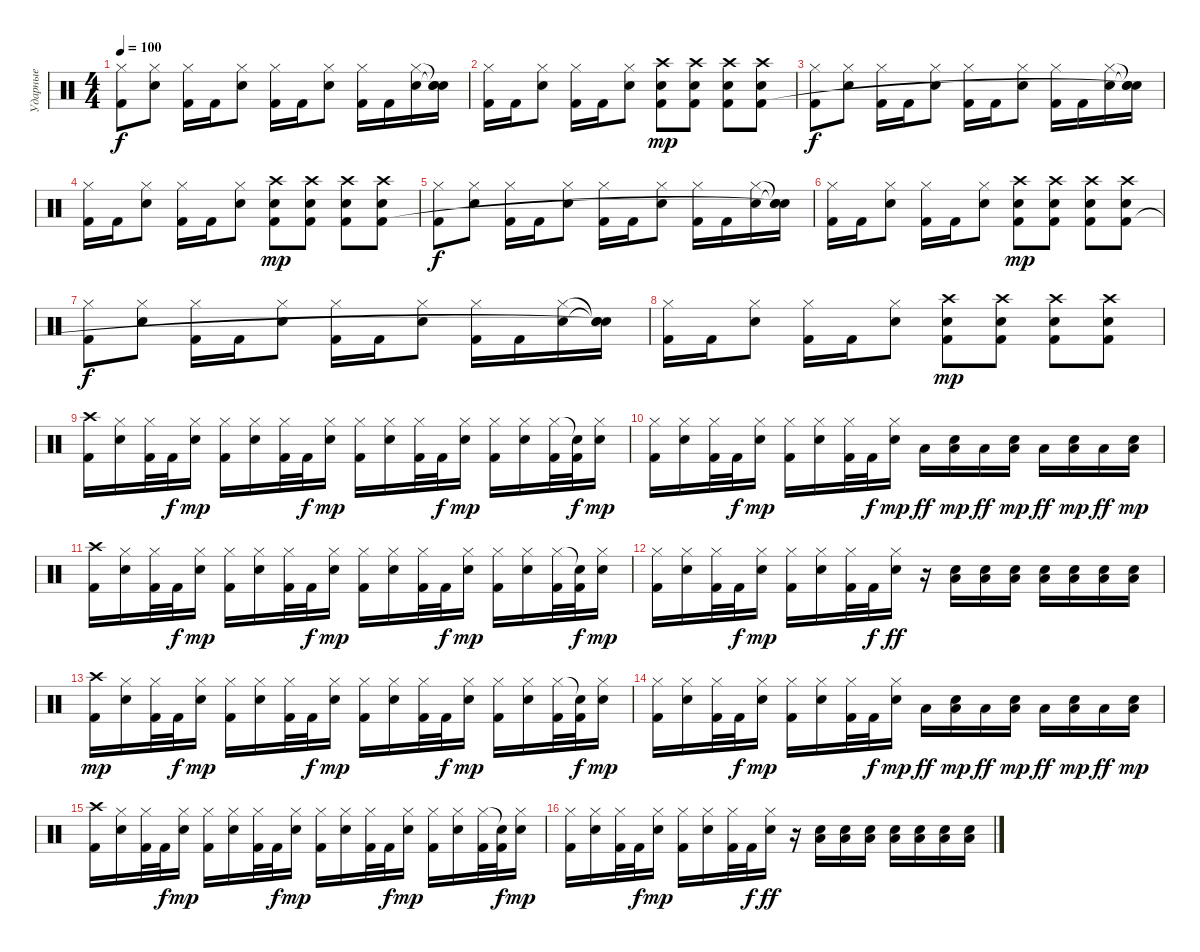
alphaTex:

\track ("Ударные" "Ударные") {instrument percussion}
\staff {score}
\articulation defaults
\ts (4 4)
\tempo 100
\clef neutral
\ks c
("Hi-Hat (closed)" "Kick (hit) 2").8{dy f} ("Hi-Hat (closed)" "Electric Snare (hit)").8 ("Hi-Hat (closed)" "Kick (hit) 2").16 "Kick (hit) 2".16 ("Hi-Hat (closed)" "Electric Snare (hit)").8 ("Hi-Hat (closed)" "Kick (hit) 2").16 "Kick (hit) 2".16 ("Hi-Hat (closed)" "Electric Snare (hit)").8 ("Hi-Hat (closed)" "Kick (hit) 2").16 "Kick (hit) 2".16 ("Hi-Hat (closed)" "Electric Snare (hit)").16 ("Snare (hit)"{t} "Snare (hit)"{t} "Snare (hit)").16 |
("Hi-Hat (closed)" "Kick (hit) 2").16 "Kick (hit) 2".16 ("Hi-Hat (closed)" "Electric Snare (hit)").8 ("Hi-Hat (closed)" "Kick (hit) 2").16 "Kick (hit) 2".16 ("Hi-Hat (closed)" "Electric Snare (hit)").8 ("Crash high (hit)" "Electric Snare (hit)" "Kick (hit) 2").8{dy mp} ("Crash high (hit)" "Electric Snare (hit)" "Kick (hit) 2").8 ("Crash high (hit)" "Electric Snare (hit)" "Kick (hit) 2").8 ("Crash high (hit)" "Electric Snare (hit)" "Kick (hit) 2").8 |
("Hi-Hat (closed)" "Kick (hit) 2").8{dy f} ("Hi-Hat (closed)" "Electric Snare (hit)").8 ("Hi-Hat (closed)" "Kick (hit) 2").16 "Kick (hit) 2".16 ("Hi-Hat (closed)" "Electric Snare (hit)").8 ("Hi-Hat (closed)" "Kick (hit) 2").16 "Kick (hit) 2".16 ("Hi-Hat (closed)" "Electric Snare (hit)").8 ("Hi-Hat (closed)" "Kick (hit) 2").16 "Kick (hit) 2".16 ("Hi-Hat (closed)" "Electric Snare (hit)").16 ("Snare (hit)"{t} "Snare (hit)"{t} "Snare (hit)"{t}).16 |
("Hi-Hat (closed)" "Kick (hit) 2").16 "Kick (hit) 2".16 ("Hi-Hat (closed)" "Electric Snare (hit)").8 ("Hi-Hat (closed)" "Kick (hit) 2").16 "Kick (hit) 2".16 ("Hi-Hat (closed)" "Electric Snare (hit)").8 ("Crash high (hit)" "Electric Snare (hit)" "Kick (hit) 2").8{dy mp} ("Crash high (hit)" "Electric Snare (hit)" "Kick (hit) 2").8 ("Crash high (hit)" "Electric Snare (hit)" "Kick (hit) 2").8 ("Crash high (hit)" "Electric Snare (hit)" "Kick (hit) 2").8 |
("Hi-Hat (closed)" "Kick (hit) 2").8{dy f} ("Hi-Hat (closed)" "Electric Snare (hit)").8 ("Hi-Hat (closed)" "Kick (hit) 2").16 "Kick (hit) 2".16 ("Hi-Hat (closed)" "Electric Snare (hit)").8 ("Hi-Hat (closed)" "Kick (hit) 2").16 "Kick (hit) 2".16 ("Hi-Hat (closed)" "Electric Snare (hit)").8 ("Hi-Hat (closed)" "Kick (hit) 2").16 "Kick (hit) 2".16 ("Hi-Hat (closed)" "Electric Snare (hit)").16 ("Snare (hit)"{t} "Snare (hit)"{t} "Snare (hit)"{t}).16 |
("Hi-Hat (closed)" "Kick (hit) 2").16 "Kick (hit) 2".16 ("Hi-Hat (closed)" "Electric Snare (hit)").8 ("Hi-Hat (closed)" "Kick (hit) 2").16 "Kick (hit) 2".16 ("Hi-Hat (closed)" "Electric Snare (hit)").8 ("Crash high (hit)" "Electric Snare (hit)" "Kick (hit) 2").8{dy mp} ("Crash high (hit)" "Electric Snare (hit)" "Kick (hit) 2").8 ("Crash high (hit)" "Electric Snare (hit)" "Kick (hit) 2").8 ("Crash high (hit)" "Electric Snare (hit)" "Kick (hit) 2").8 |
("Hi-Hat (closed)" "Kick (hit) 2").8{dy f} ("Hi-Hat (closed)" "Electric Snare (hit)").8 ("Hi-Hat (closed)" "Kick (hit) 2").16 "Kick (hit) 2".16 ("Hi-Hat (closed)" "Electric Snare (hit)").8 ("Hi-Hat (closed)" "Kick (hit) 2").16 "Kick (hit) 2".16 ("Hi-Hat (closed)" "Electric Snare (hit)").8 ("Hi-Hat (closed)" "Kick (hit) 2").16 "Kick (hit) 2".16 ("Hi-Hat (closed)" "Electric Snare (hit)").16 ("Snare (hit)"{t} "Snare (hit)"{t} "Snare (hit)"{t}).16 |
("Hi-Hat (closed)" "Kick (hit) 2").16 "Kick (hit) 2".16 ("Hi-Hat (closed)" "Electric Snare (hit)").8 ("Hi-Hat (closed)" "Kick (hit) 2").16 "Kick (hit) 2".16 ("Hi-Hat (closed)" "Electric Snare (hit)").8 ("Crash high (hit)" "Electric Snare (hit)" "Kick (hit) 2").8{dy mp} ("Crash high (hit)" "Electric Snare (hit)" "Kick (hit) 2").8 ("Crash high (hit)" "Electric Snare (hit)" "Kick (hit) 2").8 ("Crash high (hit)" "Electric Snare (hit)" "Kick (hit) 2").8 |
("Crash high (hit)" "Kick (hit) 2").16 ("Hi-Hat (closed)" "Electric Snare (hit)").16 ("Hi-Hat (closed)" "Kick (hit) 2").32 "Kick (hit) 2".32{dy f} ("Hi-Hat (closed)" "Electric Snare (hit)").16{dy mp} ("Hi-Hat (closed)" "Kick (hit) 2").16 ("Hi-Hat (closed)" "Electric Snare (hit)").16 ("Hi-Hat (closed)" "Kick (hit) 2").32 "Kick (hit) 2".32{dy f} ("Hi-Hat (closed)" "Electric Snare (hit)").16{dy mp} ("Hi-Hat (closed)" "Kick (hit) 2").16 ("Hi-Hat (closed)" "Electric Snare (hit)").16 ("Hi-Hat (closed)" "Kick (hit) 2").32 "Kick (hit) 2".32{dy f} ("Hi-Hat (closed)" "Electric Snare (hit)").16{dy mp} ("Hi-Hat (closed)" "Kick (hit) 2").16 ("Hi-Hat (closed)" "Electric Snare (hit)").16 ("Hi-Hat (closed)" "Kick (hit) 2").32 ("Snare (hit)"{t} "Kick (hit) 2").32{dy f} ("Hi-Hat (closed)" "Electric Snare (hit)").16{dy mp} |
("Hi-Hat (closed)" "Kick (hit) 2").16 ("Hi-Hat (closed)" "Electric Snare (hit)").16 ("Hi-Hat (closed)" "Kick (hit) 2").32 "Kick (hit) 2".32{dy f} ("Hi-Hat (closed)" "Electric Snare (hit)").16{dy mp} ("Hi-Hat (closed)" "Kick (hit) 2").16 ("Hi-Hat (closed)" "Electric Snare (hit)").16 ("Hi-Hat (closed)" "Kick (hit) 2").32 "Kick (hit) 2".32{dy f} ("Hi-Hat (closed)" "Electric Snare (hit)").16{dy mp} "Low Floor Tom (hit)".16{dy ff} ("Low Floor Tom (hit)" "Electric Snare (hit)").16{dy mp} "Low Floor Tom (hit)".16{dy ff} ("Low Floor Tom (hit)" "Electric Snare (hit)").16{dy mp} "Low Floor Tom (hit)".16{dy ff} ("Low Floor Tom (hit)" "Electric Snare (hit)").16{dy mp} "Low Floor Tom (hit)".16{dy ff} ("Low Floor Tom (hit)" "Electric Snare (hit)").16{dy mp} |
("Crash high (hit)" "Kick (hit) 2").16 ("Hi-Hat (closed)" "Electric Snare (hit)").16 ("Hi-Hat (closed)" "Kick (hit) 2").32 "Kick (hit) 2".32{dy f} ("Hi-Hat (closed)" "Electric Snare (hit)").16{dy mp} ("Hi-Hat (closed)" "Kick (hit) 2").16 ("Hi-Hat (closed)" "Electric Snare (hit)").16 ("Hi-Hat (closed)" "Kick (hit) 2").32 "Kick (hit) 2".32{dy f} ("Hi-Hat (closed)" "Electric Snare (hit)").16{dy mp} ("Hi-Hat (closed)" "Kick (hit) 2").16 ("Hi-Hat (closed)" "Electric Snare (hit)").16 ("Hi-Hat (closed)" "Kick (hit) 2").32 "Kick (hit) 2".32{dy f} ("Hi-Hat (closed)" "Electric Snare (hit)").16{dy mp} ("Hi-Hat (closed)" "Kick (hit) 2").16 ("Hi-Hat (closed)" "Electric Snare (hit)").16 ("Hi-Hat (closed)" "Kick (hit) 2").32 ("Snare (hit)"{t} "Kick (hit) 2").32{dy f} ("Hi-Hat (closed)" "Electric Snare (hit)").16{dy mp} |
("Hi-Hat (closed)" "Kick (hit) 2").16 ("Hi-Hat (closed)" "Electric Snare (hit)").16 ("Hi-Hat (closed)" "Kick (hit) 2").32 "Kick (hit) 2".32{dy f} ("Hi-Hat (closed)" "Electric Snare (hit)").16{dy mp} ("Hi-Hat (closed)" "Kick (hit) 2").16 ("Hi-Hat (closed)" "Electric Snare (hit)").16 ("Hi-Hat (closed)" "Kick (hit) 2").32 "Kick (hit) 2".32{dy f} ("Hi-Hat (closed)" "Electric Snare (hit)").16{dy ff} r.16 ("Low Floor Tom (hit)" "Electric Snare (hit)").16 ("Low Floor Tom (hit)" "Electric Snare (hit)").16 ("Low Floor Tom (hit)" "Electric Snare (hit)").16 ("Low Floor Tom (hit)" "Electric Snare (hit)").16 ("Low Floor Tom (hit)" "Electric Snare (hit)").16 ("Low Floor Tom (hit)" "Electric Snare (hit)").16 ("Low Floor Tom (hit)" "Electric Snare (hit)").16 |
("Crash high (hit)" "Kick (hit) 2").16{dy mp} ("Hi-Hat (closed)" "Electric Snare (hit)").16 ("Hi-Hat (closed)" "Kick (hit) 2").32 "Kick (hit) 2".32{dy f} ("Hi-Hat (closed)" "Electric Snare (hit)").16{dy mp} ("Hi-Hat (closed)" "Kick (hit) 2").16 ("Hi-Hat (closed)" "Electric Snare (hit)").16 ("Hi-Hat (closed)" "Kick (hit) 2").32 "Kick (hit) 2".32{dy f} ("Hi-Hat (closed)" "Electric Snare (hit)").16{dy mp} ("Hi-Hat (closed)" "Kick (hit) 2").16 ("Hi-Hat (closed)" "Electric Snare (hit)").16 ("Hi-Hat (closed)" "Kick (hit) 2").32 "Kick (hit) 2".32{dy f} ("Hi-Hat (closed)" "Electric Snare (hit)").16{dy mp} ("Hi-Hat (closed)" "Kick (hit) 2").16 ("Hi-Hat (closed)" "Electric Snare (hit)").16 ("Hi-Hat (closed)" "Kick (hit) 2").32 ("Snare (hit)"{t} "Kick (hit) 2").32{dy f} ("Hi-Hat (closed)" "Electric Snare (hit)").16{dy mp} |
("Hi-Hat (closed)" "Kick (hit) 2").16 ("Hi-Hat (closed)" "Electric Snare (hit)").16 ("Hi-Hat (closed)" "Kick (hit) 2").32 "Kick (hit) 2".32{dy f} ("Hi-Hat (closed)" "Electric Snare (hit)").16{dy mp} ("Hi-Hat (closed)" "Kick (hit) 2").16 ("Hi-Hat (closed)" "Electric Snare (hit)").16 ("Hi-Hat (closed)" "Kick (hit) 2").32 "Kick (hit) 2".32{dy f} ("Hi-Hat (closed)" "Electric Snare (hit)").16{dy mp} "Low Floor Tom (hit)".16{dy ff} ("Low Floor Tom (hit)" "Electric Snare (hit)").16{dy mp} "Low Floor Tom (hit)".16{dy ff} ("Low Floor Tom (hit)" "Electric Snare (hit)").16{dy mp} "Low Floor Tom (hit)".16{dy ff} ("Low Floor Tom (hit)" "Electric Snare (hit)").16{dy mp} "Low Floor Tom (hit)".16{dy ff} ("Low Floor Tom (hit)" "Electric Snare (hit)").16{dy mp} |
("Crash high (hit)" "Kick (hit) 2").16 ("Hi-Hat (closed)" "Electric Snare (hit)").16 ("Hi-Hat (closed)" "Kick (hit) 2").32 "Kick (hit) 2".32{dy f} ("Hi-Hat (closed)" "Electric Snare (hit)").16{dy mp} ("Hi-Hat (closed)" "Kick (hit) 2").16 ("Hi-Hat (closed)" "Electric Snare (hit)").16 ("Hi-Hat (closed)" "Kick (hit) 2").32 "Kick (hit) 2".32{dy f} ("Hi-Hat (closed)" "Electric Snare (hit)").16{dy mp} ("Hi-Hat (closed)" "Kick (hit) 2").16 ("Hi-Hat (closed)" "Electric Snare (hit)").16 ("Hi-Hat (closed)" "Kick (hit) 2").32 "Kick (hit) 2".32{dy f} ("Hi-Hat (closed)" "Electric Snare (hit)").16{dy mp} ("Hi-Hat (closed)" "Kick (hit) 2").16 ("Hi-Hat (closed)" "Electric Snare (hit)").16 ("Hi-Hat (closed)" "Kick (hit) 2").32 ("Snare (hit)"{t} "Kick (hit) 2").32{dy f} ("Hi-Hat (closed)" "Electric Snare (hit)").16{dy mp} |
("Hi-Hat (closed)" "Kick (hit) 2").16 ("Hi-Hat (closed)" "Electric Snare (hit)").16 ("Hi-Hat (closed)" "Kick (hit) 2").32 "Kick (hit) 2".32{dy f} ("Hi-Hat (closed)" "Electric Snare (hit)").16{dy mp} ("Hi-Hat (closed)" "Kick (hit) 2").16 ("Hi-Hat (closed)" "Electric Snare (hit)").16 ("Hi-Hat (closed)" "Kick (hit) 2").32 "Kick (hit) 2".32{dy f} ("Hi-Hat (closed)" "Electric Snare (hit)").16{dy ff} r.16 ("Low Floor Tom (hit)" "Electric Snare (hit)").16 ("Low Floor Tom (hit)" "Electric Snare (hit)").16 ("Low Floor Tom (hit)" "Electric Snare (hit)").16 ("Low Floor Tom (hit)" "Electric Snare (hit)").16 ("Low Floor Tom (hit)" "Electric Snare (hit)").16 ("Low Floor Tom (hit)" "Electric Snare (hit)").16 ("Low Floor Tom (hit)" "Electric Snare (hit)").16
